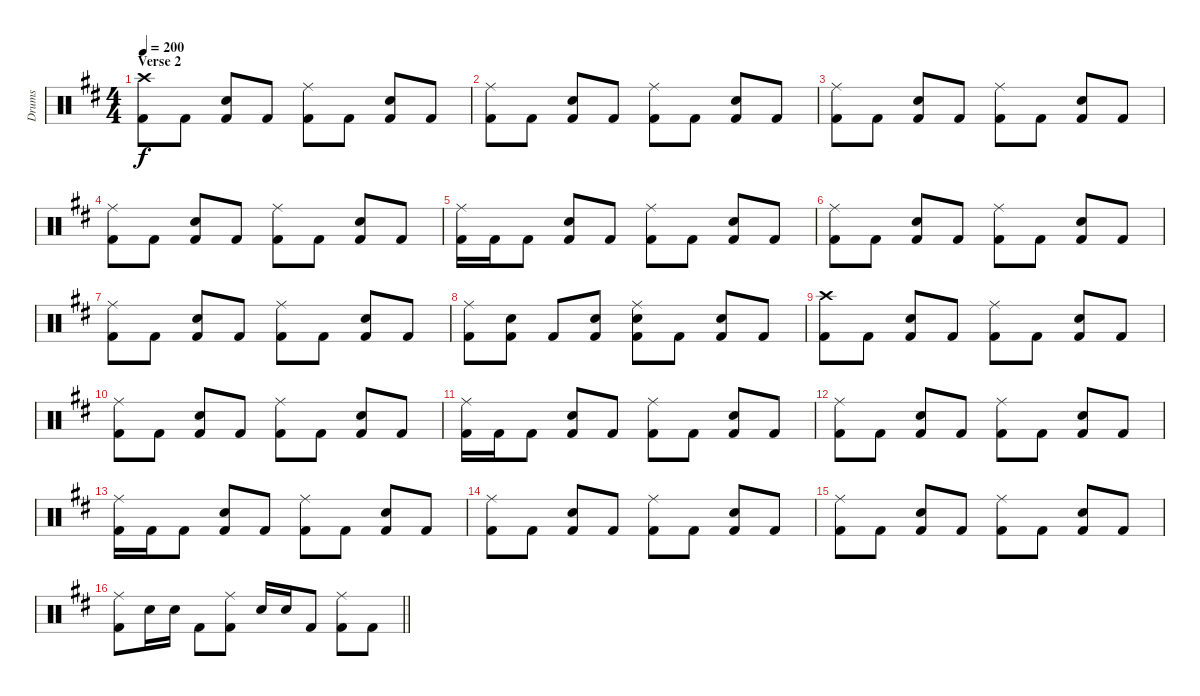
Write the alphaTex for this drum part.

\track ("Drums" "Drums") {instrument percussion}
\staff {score}
\articulation defaults
\ts (4 4)
\section ("" "Verse 2")
\tempo 200
\clef neutral
\ks bminor
("Kick (hit) 2" "Crash high (hit)").8{dy f} "Kick (hit) 2".8 ("Kick (hit) 2" "Electric Snare (hit)").8 "Kick (hit) 2".8 ("Kick (hit) 2" "Ride (middle)").8 "Kick (hit) 2".8 ("Kick (hit) 2" "Electric Snare (hit)").8 "Kick (hit) 2".8 |
("Kick (hit) 2" "Ride (middle)").8 "Kick (hit) 2".8 ("Kick (hit) 2" "Electric Snare (hit)").8 "Kick (hit) 2".8 ("Kick (hit) 2" "Ride (middle)").8 "Kick (hit) 2".8 ("Kick (hit) 2" "Electric Snare (hit)").8 "Kick (hit) 2".8 |
("Kick (hit) 2" "Ride (middle)").8 "Kick (hit) 2".8 ("Kick (hit) 2" "Electric Snare (hit)").8 "Kick (hit) 2".8 ("Kick (hit) 2" "Ride (middle)").8 "Kick (hit) 2".8 ("Kick (hit) 2" "Electric Snare (hit)").8 "Kick (hit) 2".8 |
("Kick (hit) 2" "Ride (middle)").8 "Kick (hit) 2".8 ("Kick (hit) 2" "Electric Snare (hit)").8 "Kick (hit) 2".8 ("Kick (hit) 2" "Ride (middle)").8 "Kick (hit) 2".8 ("Kick (hit) 2" "Electric Snare (hit)").8 "Kick (hit) 2".8 |
("Kick (hit) 2" "Ride (middle)").16 "Kick (hit) 2".16 "Kick (hit) 2".8 ("Kick (hit) 2" "Electric Snare (hit)").8 "Kick (hit) 2".8 ("Kick (hit) 2" "Ride (middle)").8 "Kick (hit) 2".8 ("Kick (hit) 2" "Electric Snare (hit)").8 "Kick (hit) 2".8 |
("Kick (hit) 2" "Ride (middle)").8 "Kick (hit) 2".8 ("Kick (hit) 2" "Electric Snare (hit)").8 "Kick (hit) 2".8 ("Kick (hit) 2" "Ride (middle)").8 "Kick (hit) 2".8 ("Kick (hit) 2" "Electric Snare (hit)").8 "Kick (hit) 2".8 |
("Kick (hit) 2" "Ride (middle)").8 "Kick (hit) 2".8 ("Kick (hit) 2" "Electric Snare (hit)").8 "Kick (hit) 2".8 ("Kick (hit) 2" "Ride (middle)").8 "Kick (hit) 2".8 ("Kick (hit) 2" "Electric Snare (hit)").8 "Kick (hit) 2".8 |
("Kick (hit) 2" "Ride (middle)").8 ("Kick (hit) 2" "Electric Snare (hit)").8 "Kick (hit) 2".8 ("Kick (hit) 2" "Electric Snare (hit)").8 ("Kick (hit) 2" "Ride (middle)" "Electric Snare (hit)").8 "Kick (hit) 2".8 ("Kick (hit) 2" "Electric Snare (hit)").8 "Kick (hit) 2".8 |
("Kick (hit) 2" "Crash high (hit)").8 "Kick (hit) 2".8 ("Kick (hit) 2" "Electric Snare (hit)").8 "Kick (hit) 2".8 ("Kick (hit) 2" "Ride (middle)").8 "Kick (hit) 2".8 ("Kick (hit) 2" "Electric Snare (hit)").8 "Kick (hit) 2".8 |
("Kick (hit) 2" "Ride (middle)").8 "Kick (hit) 2".8 ("Kick (hit) 2" "Electric Snare (hit)").8 "Kick (hit) 2".8 ("Kick (hit) 2" "Ride (middle)").8 "Kick (hit) 2".8 ("Kick (hit) 2" "Electric Snare (hit)").8 "Kick (hit) 2".8 |
("Kick (hit) 2" "Ride (middle)").16 "Kick (hit) 2".16 "Kick (hit) 2".8 ("Kick (hit) 2" "Electric Snare (hit)").8 "Kick (hit) 2".8 ("Kick (hit) 2" "Ride (middle)").8 "Kick (hit) 2".8 ("Kick (hit) 2" "Electric Snare (hit)").8 "Kick (hit) 2".8 |
("Kick (hit) 2" "Ride (middle)").8 "Kick (hit) 2".8 ("Kick (hit) 2" "Electric Snare (hit)").8 "Kick (hit) 2".8 ("Kick (hit) 2" "Ride (middle)").8 "Kick (hit) 2".8 ("Kick (hit) 2" "Electric Snare (hit)").8 "Kick (hit) 2".8 |
("Kick (hit) 2" "Ride (middle)").16 "Kick (hit) 2".16 "Kick (hit) 2".8 ("Kick (hit) 2" "Electric Snare (hit)").8 "Kick (hit) 2".8 ("Kick (hit) 2" "Ride (middle)").8 "Kick (hit) 2".8 ("Kick (hit) 2" "Electric Snare (hit)").8 "Kick (hit) 2".8 |
("Kick (hit) 2" "Ride (middle)").8 "Kick (hit) 2".8 ("Kick (hit) 2" "Electric Snare (hit)").8 "Kick (hit) 2".8 ("Kick (hit) 2" "Ride (middle)").8 "Kick (hit) 2".8 ("Kick (hit) 2" "Electric Snare (hit)").8 "Kick (hit) 2".8 |
("Kick (hit) 2" "Ride (middle)").8 "Kick (hit) 2".8 ("Kick (hit) 2" "Electric Snare (hit)").8 "Kick (hit) 2".8 ("Kick (hit) 2" "Ride (middle)").8 "Kick (hit) 2".8 ("Kick (hit) 2" "Electric Snare (hit)").8 "Kick (hit) 2".8 |
\barLineRight lightlight
("Kick (hit) 2" "Ride (middle)").8 "Electric Snare (hit)".16 "Electric Snare (hit)".16 "Kick (hit) 2".8 ("Kick (hit) 2" "Ride (middle)").8 "Electric Snare (hit)".16 "Electric Snare (hit)".16 "Kick (hit) 2".8 ("Kick (hit) 2" "Ride (middle)").8 "Kick (hit) 2".8
